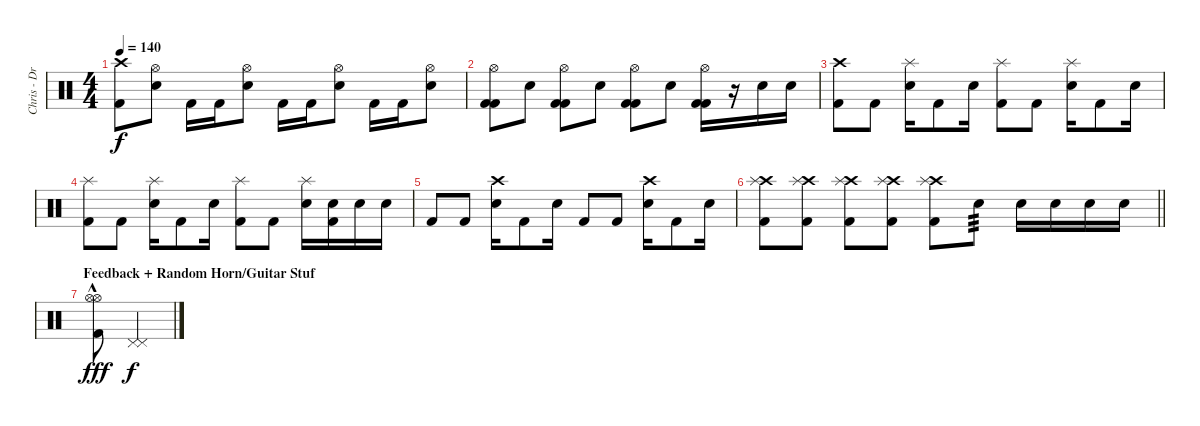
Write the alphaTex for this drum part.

\track ("Chris - Drums" "Chris - Dr") {instrument percussion}
\staff {score}
\articulation defaults
\ts (4 4)
\tempo 140
\clef neutral
\ks c
("Crash high (hit)" "Kick (hit) 2").8{dy f} ("Hi-Hat (open)" "Electric Snare (hit)").8 "Kick (hit) 2".16 "Kick (hit) 2".16 ("Hi-Hat (open)" "Electric Snare (hit)").8 "Kick (hit) 2".16 "Kick (hit) 2".16 ("Hi-Hat (open)" "Electric Snare (hit)").8 "Kick (hit) 2".16 "Kick (hit) 2".16 ("Hi-Hat (open)" "Electric Snare (hit)").8 |
("Hi-Hat (open)" "Kick (hit) 2" "Kick (hit) 2").8 "Electric Snare (hit)".8 ("Hi-Hat (open)" "Kick (hit) 2" "Kick (hit) 2").8 "Electric Snare (hit)".8 ("Hi-Hat (open)" "Kick (hit) 2" "Kick (hit) 2").8 "Electric Snare (hit)".8 ("Hi-Hat (open)" "Kick (hit) 2" "Kick (hit) 2").16 r.16 "Electric Snare (hit)".16 "Electric Snare (hit)".16 |
("Crash high (hit)" "Kick (hit) 2").8 "Kick (hit) 2".8 ("Splash (hit)" "Electric Snare (hit)").16 "Kick (hit) 2".8 "Electric Snare (hit)".16 ("Splash (hit)" "Kick (hit) 2").8 "Kick (hit) 2".8 ("Splash (hit)" "Electric Snare (hit)").16 "Kick (hit) 2".8 "Electric Snare (hit)".16 |
("Splash (hit)" "Kick (hit) 2").8 "Kick (hit) 2".8 ("Splash (hit)" "Electric Snare (hit)").16 "Kick (hit) 2".8 "Electric Snare (hit)".16 ("Splash (hit)" "Kick (hit) 2").8 "Kick (hit) 2".8 ("Splash (hit)" "Electric Snare (hit)").16 ("Electric Snare (hit)" "Kick (hit) 2").16 "Electric Snare (hit)".16 "Electric Snare (hit)".16 |
"Kick (hit) 2".8 "Kick (hit) 2".8 ("Crash high (hit)" "Electric Snare (hit)").16 "Kick (hit) 2".8 "Electric Snare (hit)".16 "Kick (hit) 2".8 "Kick (hit) 2".8 ("Crash high (hit)" "Electric Snare (hit)").16 "Kick (hit) 2".8 "Electric Snare (hit)".16 |
\barLineRight lightlight
("Crash high (hit)" "Splash (hit)" "Kick (hit) 2").8 ("Crash high (hit)" "Splash (hit)" "Kick (hit) 2").8 ("Crash high (hit)" "Splash (hit)" "Kick (hit) 2").8 ("Crash high (hit)" "Splash (hit)" "Kick (hit) 2").8 ("Crash high (hit)" "Splash (hit)" "Kick (hit) 2").8 "Electric Snare (hit)".8{tp 3} "Electric Snare (hit)".16 "Electric Snare (hit)".16 "Electric Snare (hit)".16 "Electric Snare (hit)".16 |
\section ("" "Feedback + Random Horn/Guitar Stuf")
("Hi-Hat (open)"{hac} "Hi-Hat (open)"{hac} "Kick (hit) 2").8{dy fff} ("Pedal Hi-Hat (hit)" "Pedal Hi-Hat (hit)").4{dy f}
